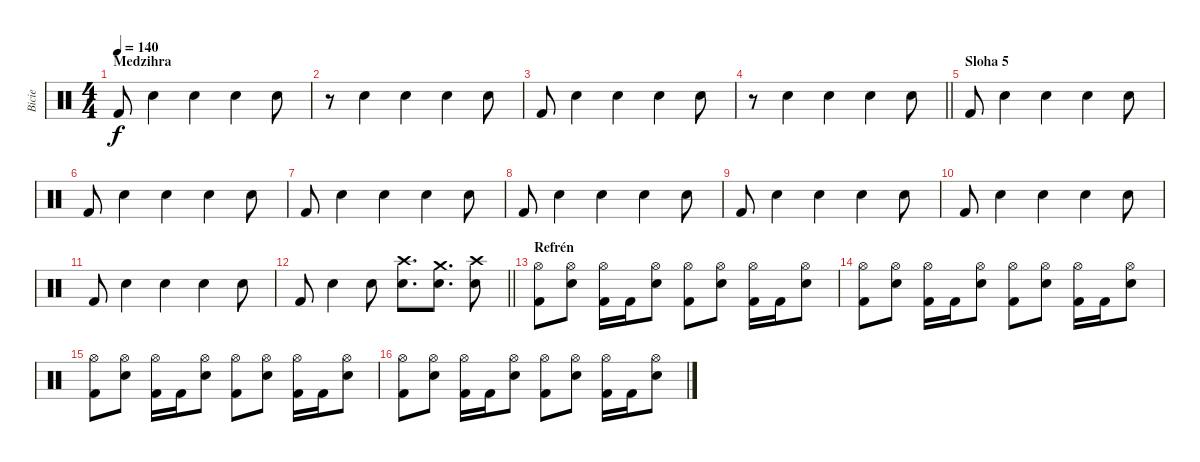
\track ("Bicie" "Bicie") {instrument percussion}
\staff {score}
\articulation defaults
\ts (4 4)
\section ("" "Medzihra")
\tempo 140
\clef neutral
\ks c "Kick (hit) 2".8{dy f} "Snare (hit) 2".4 "Snare (hit) 2".4 "Snare (hit) 2".4 "Snare (hit) 2".8
|
r.8 "Snare (hit) 2".4 "Snare (hit) 2".4 "Snare (hit) 2".4 "Snare (hit) 2".8 |
"Kick (hit) 2".8 "Snare (hit) 2".4 "Snare (hit) 2".4 "Snare (hit) 2".4 "Snare (hit) 2".8 |
\barLineRight lightlight
r.8 "Snare (hit) 2".4 "Snare (hit) 2".4 "Snare (hit) 2".4 "Snare (hit) 2".8 |
\section ("" "Sloha 5")
"Kick (hit) 2".8 "Snare (hit) 2".4 "Snare (hit) 2".4 "Snare (hit) 2".4 "Snare (hit) 2".8 |
"Kick (hit) 2".8 "Snare (hit) 2".4 "Snare (hit) 2".4 "Snare (hit) 2".4 "Snare (hit) 2".8 |
"Kick (hit) 2".8 "Snare (hit) 2".4 "Snare (hit) 2".4 "Snare (hit) 2".4 "Snare (hit) 2".8 |
"Kick (hit) 2".8 "Snare (hit) 2".4 "Snare (hit) 2".4 "Snare (hit) 2".4 "Snare (hit) 2".8 |
"Kick (hit) 2".8 "Snare (hit) 2".4 "Snare (hit) 2".4 "Snare (hit) 2".4 "Snare (hit) 2".8 |
"Kick (hit) 2".8 "Snare (hit) 2".4 "Snare (hit) 2".4 "Snare (hit) 2".4 "Snare (hit) 2".8 |
"Kick (hit) 2".8 "Snare (hit) 2".4 "Snare (hit) 2".4 "Snare (hit) 2".4 "Snare (hit) 2".8 |
\barLineRight lightlight "Kick (hit) 2".8 "Snare (hit) 2".4 "Snare (hit) 2".8
("Crash high (hit)" "Snare (hit) 2").8{d} ("Crash medium (hit)" "Snare (hit) 2").8{d} ("Crash high (hit)" "Snare (hit) 2").8 |
\section ("" "Refrén")
("Hi-Hat (open)" "Kick (hit) 2").8 ("Hi-Hat (open)" "Snare (hit) 2").8 ("Hi-Hat (open)" "Kick (hit) 2").16 "Kick (hit) 2".16 ("Hi-Hat (open)" "Snare (hit) 2").8 ("Hi-Hat (open)" "Kick (hit) 2").8 ("Hi-Hat (open)" "Snare (hit) 2").8 ("Hi-Hat (open)" "Kick (hit) 2").16 "Kick (hit) 2".16 ("Hi-Hat (open)" "Snare (hit) 2").8 |
("Hi-Hat (open)" "Kick (hit) 2").8 ("Hi-Hat (open)" "Snare (hit) 2").8 ("Hi-Hat (open)" "Kick (hit) 2").16 "Kick (hit) 2".16 ("Hi-Hat (open)" "Snare (hit) 2").8 ("Hi-Hat (open)" "Kick (hit) 2").8 ("Hi-Hat (open)" "Snare (hit) 2").8 ("Hi-Hat (open)" "Kick (hit) 2").16 "Kick (hit) 2".16 ("Hi-Hat (open)" "Snare (hit) 2").8 |
("Hi-Hat (open)" "Kick (hit) 2").8 ("Hi-Hat (open)" "Snare (hit) 2").8 ("Hi-Hat (open)" "Kick (hit) 2").16 "Kick (hit) 2".16 ("Hi-Hat (open)" "Snare (hit) 2").8 ("Hi-Hat (open)" "Kick (hit) 2").8 ("Hi-Hat (open)" "Snare (hit) 2").8 ("Hi-Hat (open)" "Kick (hit) 2").16 "Kick (hit) 2".16 ("Hi-Hat (open)" "Snare (hit) 2").8 |
("Hi-Hat (open)" "Kick (hit) 2").8 ("Hi-Hat (open)" "Snare (hit) 2").8 ("Hi-Hat (open)" "Kick (hit) 2").16 "Kick (hit) 2".16 ("Hi-Hat (open)" "Snare (hit) 2").8 ("Hi-Hat (open)" "Kick (hit) 2").8 ("Hi-Hat (open)" "Snare (hit) 2").8 ("Hi-Hat (open)" "Kick (hit) 2").16 "Kick (hit) 2".16 ("Hi-Hat (open)" "Snare (hit) 2").8
